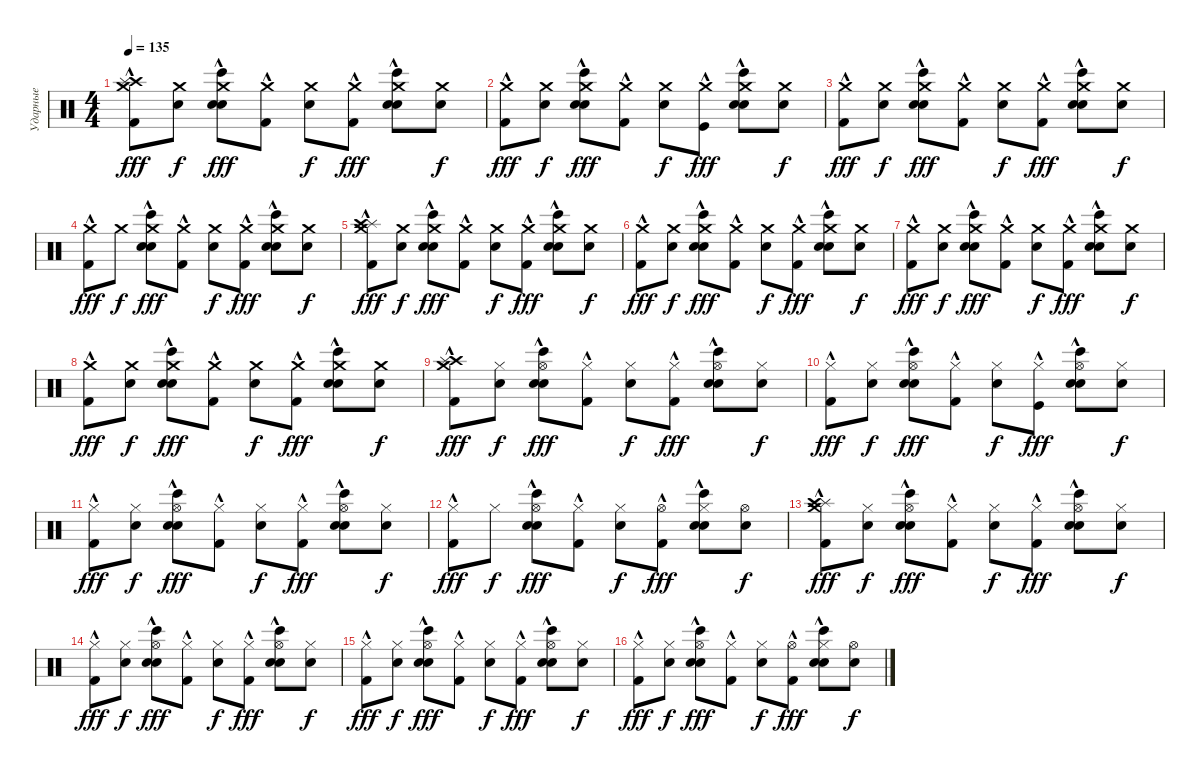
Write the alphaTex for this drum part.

\track ("Ударные" "Ударные") {instrument percussion}
\staff {score}
\articulation defaults
\ts (4 4)
\tempo 135
\clef neutral
\ks c
("Crash medium (hit)"{hac} "Crash high (hit)" "Splash (hit)"{hac} "Kick (hit) 2"{hac}).8{dy fff} ("Crash medium (hit)" "Snare (hit)").8{dy f} ("Crash medium (hit)" "Snare (hit) 2" "Bongo High (hit)" "Electric Snare (hit)"{hac}).8{dy fff} ("Crash medium (hit)" "Kick (hit) 2"{hac}).8 ("Crash medium (hit)" "Snare (hit)").8{dy f} ("Crash medium (hit)" "Kick (hit) 2"{hac}).8{dy fff} ("Crash medium (hit)" "Snare (hit) 2" "Bongo High (hit)" "Electric Snare (hit)"{hac}).8 ("Crash medium (hit)" "Snare (hit)").8{dy f} |
("Crash medium (hit)" "Kick (hit) 2"{hac}).8{dy fff} ("Crash medium (hit)" "Snare (hit)").8{dy f} ("Crash medium (hit)" "Snare (hit) 2" "Bongo High (hit)" "Electric Snare (hit)"{hac}).8{dy fff} ("Crash medium (hit)" "Kick (hit) 2"{hac}).8 ("Crash medium (hit)" "Snare (hit)").8{dy f} ("Crash medium (hit)" "Kick (hit)"{hac}).8{dy fff} ("Crash medium (hit)" "Snare (hit) 2" "Bongo High (hit)" "Electric Snare (hit)"{hac}).8 ("Crash medium (hit)" "Snare (hit)").8{dy f} |
("Crash medium (hit)" "Kick (hit) 2"{hac}).8{dy fff} ("Crash medium (hit)" "Snare (hit)").8{dy f} ("Crash medium (hit)" "Snare (hit) 2" "Bongo High (hit)" "Electric Snare (hit)"{hac}).8{dy fff} ("Crash medium (hit)" "Kick (hit) 2"{hac}).8 ("Crash medium (hit)" "Snare (hit)").8{dy f} ("Crash medium (hit)" "Kick (hit) 2"{hac}).8{dy fff} ("Crash medium (hit)" "Snare (hit) 2" "Bongo High (hit)" "Electric Snare (hit)"{hac}).8 ("Crash medium (hit)" "Snare (hit)").8{dy f} |
("Crash medium (hit)" "Kick (hit) 2"{hac}).8{dy fff} "Crash medium (hit)".8{dy f} ("Crash medium (hit)" "Snare (hit) 2" "Bongo High (hit)" "Electric Snare (hit)"{hac}).8{dy fff} ("Crash medium (hit)" "Kick (hit) 2"{hac}).8 ("Crash medium (hit)" "Snare (hit)").8{dy f} ("Crash medium (hit)" "Kick (hit) 2"{hac}).8{dy fff} ("Crash medium (hit)" "Snare (hit) 2" "Bongo High (hit)" "Electric Snare (hit)"{hac}).8 ("Crash medium (hit)" "Snare (hit)").8{dy f} |
("Crash medium (hit)" "Splash (hit)"{hac} "Crash high (hit)"{hac} "Kick (hit) 2"{hac}).8{dy fff} ("Crash medium (hit)" "Snare (hit)").8{dy f} ("Crash medium (hit)" "Bongo High (hit)" "Snare (hit) 2" "Electric Snare (hit)"{hac}).8{dy fff} ("Crash medium (hit)" "Kick (hit) 2"{hac}).8 ("Crash medium (hit)" "Snare (hit)").8{dy f} ("Crash medium (hit)" "Kick (hit) 2"{hac}).8{dy fff} ("Crash medium (hit)" "Bongo High (hit)" "Snare (hit) 2" "Electric Snare (hit)"{hac}).8 ("Crash medium (hit)" "Snare (hit)").8{dy f} |
("Crash medium (hit)" "Kick (hit) 2"{hac}).8{dy fff} ("Crash medium (hit)" "Snare (hit)").8{dy f} ("Crash medium (hit)" "Bongo High (hit)" "Snare (hit) 2" "Electric Snare (hit)"{hac}).8{dy fff} ("Crash medium (hit)" "Kick (hit) 2"{hac}).8 ("Crash medium (hit)" "Snare (hit)").8{dy f} ("Crash medium (hit)" "Kick (hit) 2"{hac}).8{dy fff} ("Crash medium (hit)" "Bongo High (hit)" "Snare (hit) 2" "Electric Snare (hit)"{hac}).8 ("Crash medium (hit)" "Snare (hit)").8{dy f} |
("Crash medium (hit)" "Kick (hit) 2"{hac}).8{dy fff} ("Crash medium (hit)" "Snare (hit)").8{dy f} ("Crash medium (hit)" "Bongo High (hit)" "Snare (hit) 2" "Electric Snare (hit)"{hac}).8{dy fff} ("Crash medium (hit)" "Kick (hit) 2"{hac}).8 ("Crash medium (hit)" "Snare (hit)").8{dy f} ("Crash medium (hit)" "Kick (hit) 2"{hac}).8{dy fff} ("Crash medium (hit)" "Bongo High (hit)" "Snare (hit) 2" "Electric Snare (hit)"{hac}).8 ("Crash medium (hit)" "Snare (hit)").8{dy f} |
("Crash medium (hit)" "Kick (hit) 2"{hac}).8{dy fff} ("Crash medium (hit)" "Snare (hit)").8{dy f} ("Crash medium (hit)" "Bongo High (hit)" "Snare (hit) 2" "Electric Snare (hit)"{hac}).8{dy fff} ("Crash medium (hit)" "Kick (hit) 2"{hac}).8 ("Crash medium (hit)" "Snare (hit)").8{dy f} ("Crash medium (hit)" "Kick (hit) 2"{hac}).8{dy fff} ("Crash medium (hit)" "Bongo High (hit)" "Snare (hit) 2" "Electric Snare (hit)"{hac}).8 ("Crash medium (hit)" "Snare (hit)").8{dy f} |
("Crash medium (hit)"{hac} "Crash high (hit)" "Splash (hit)"{hac} "Kick (hit) 2"{hac}).8{dy fff} ("Hi-Hat (closed)" "Snare (hit)").8{dy f} ("Hi-Hat (open)" "Snare (hit) 2" "Bongo High (hit)" "Electric Snare (hit)"{hac}).8{dy fff} ("Hi-Hat (closed)" "Kick (hit) 2"{hac}).8 ("Hi-Hat (closed)" "Snare (hit)").8{dy f} ("Hi-Hat (closed)" "Kick (hit) 2"{hac}).8{dy fff} ("Hi-Hat (open)" "Snare (hit) 2" "Bongo High (hit)" "Electric Snare (hit)"{hac}).8 ("Hi-Hat (closed)" "Snare (hit)").8{dy f} |
("Hi-Hat (closed)" "Kick (hit) 2"{hac}).8{dy fff} ("Hi-Hat (closed)" "Snare (hit)").8{dy f} ("Hi-Hat (open)" "Snare (hit) 2" "Bongo High (hit)" "Electric Snare (hit)"{hac}).8{dy fff} ("Hi-Hat (closed)" "Kick (hit) 2"{hac}).8 ("Hi-Hat (closed)" "Snare (hit)").8{dy f} ("Hi-Hat (closed)" "Kick (hit)"{hac}).8{dy fff} ("Hi-Hat (open)" "Snare (hit) 2" "Bongo High (hit)" "Electric Snare (hit)"{hac}).8 ("Hi-Hat (closed)" "Snare (hit)").8{dy f} |
("Hi-Hat (closed)" "Kick (hit) 2"{hac}).8{dy fff} ("Hi-Hat (closed)" "Snare (hit)").8{dy f} ("Hi-Hat (open)" "Snare (hit) 2" "Bongo High (hit)" "Electric Snare (hit)"{hac}).8{dy fff} ("Hi-Hat (closed)" "Kick (hit) 2"{hac}).8 ("Hi-Hat (closed)" "Snare (hit)").8{dy f} ("Hi-Hat (closed)" "Kick (hit) 2"{hac}).8{dy fff} ("Hi-Hat (open)" "Snare (hit) 2" "Bongo High (hit)" "Electric Snare (hit)"{hac}).8 ("Hi-Hat (closed)" "Snare (hit)").8{dy f} |
("Hi-Hat (closed)" "Kick (hit) 2"{hac}).8{dy fff} "Hi-Hat (closed)".8{dy f} ("Hi-Hat (open)" "Snare (hit) 2" "Bongo High (hit)" "Electric Snare (hit)"{hac}).8{dy fff} ("Hi-Hat (closed)" "Kick (hit) 2"{hac}).8 ("Hi-Hat (closed)" "Snare (hit)").8{dy f} ("Hi-Hat (open)" "Kick (hit) 2"{hac}).8{dy fff} ("Hi-Hat (closed)" "Snare (hit) 2" "Bongo High (hit)" "Electric Snare (hit)"{hac}).8 ("Hi-Hat (open)" "Snare (hit)").8{dy f} |
("Crash medium (hit)" "Splash (hit)"{hac} "Crash high (hit)"{hac} "Kick (hit) 2"{hac}).8{dy fff} ("Hi-Hat (closed)" "Snare (hit)").8{dy f} ("Hi-Hat (open)" "Bongo High (hit)" "Snare (hit) 2" "Electric Snare (hit)"{hac}).8{dy fff} ("Hi-Hat (closed)" "Kick (hit) 2"{hac}).8 ("Hi-Hat (closed)" "Snare (hit)").8{dy f} ("Hi-Hat (closed)" "Kick (hit) 2"{hac}).8{dy fff} ("Hi-Hat (open)" "Bongo High (hit)" "Snare (hit) 2" "Electric Snare (hit)"{hac}).8 ("Hi-Hat (closed)" "Snare (hit)").8{dy f} |
("Hi-Hat (closed)" "Kick (hit) 2"{hac}).8{dy fff} ("Hi-Hat (closed)" "Snare (hit)").8{dy f} ("Hi-Hat (open)" "Bongo High (hit)" "Snare (hit) 2" "Electric Snare (hit)"{hac}).8{dy fff} ("Hi-Hat (closed)" "Kick (hit) 2"{hac}).8 ("Hi-Hat (closed)" "Snare (hit)").8{dy f} ("Hi-Hat (closed)" "Kick (hit) 2"{hac}).8{dy fff} ("Hi-Hat (open)" "Bongo High (hit)" "Snare (hit) 2" "Electric Snare (hit)"{hac}).8 ("Hi-Hat (closed)" "Snare (hit)").8{dy f} |
("Hi-Hat (closed)" "Kick (hit) 2"{hac}).8{dy fff} ("Hi-Hat (closed)" "Snare (hit)").8{dy f} ("Hi-Hat (open)" "Bongo High (hit)" "Snare (hit) 2" "Electric Snare (hit)"{hac}).8{dy fff} ("Hi-Hat (closed)" "Kick (hit) 2"{hac}).8 ("Hi-Hat (closed)" "Snare (hit)").8{dy f} ("Hi-Hat (closed)" "Kick (hit) 2"{hac}).8{dy fff} ("Hi-Hat (open)" "Bongo High (hit)" "Snare (hit) 2" "Electric Snare (hit)"{hac}).8 ("Hi-Hat (closed)" "Snare (hit)").8{dy f} |
("Hi-Hat (closed)" "Kick (hit) 2"{hac}).8{dy fff} ("Hi-Hat (closed)" "Snare (hit)").8{dy f} ("Hi-Hat (open)" "Bongo High (hit)" "Snare (hit) 2" "Electric Snare (hit)"{hac}).8{dy fff} ("Hi-Hat (closed)" "Kick (hit) 2"{hac}).8 ("Hi-Hat (closed)" "Snare (hit)").8{dy f} ("Hi-Hat (open)" "Kick (hit) 2"{hac}).8{dy fff} ("Hi-Hat (closed)" "Bongo High (hit)" "Snare (hit) 2" "Electric Snare (hit)"{hac}).8 ("Hi-Hat (open)" "Snare (hit)").8{dy f}
